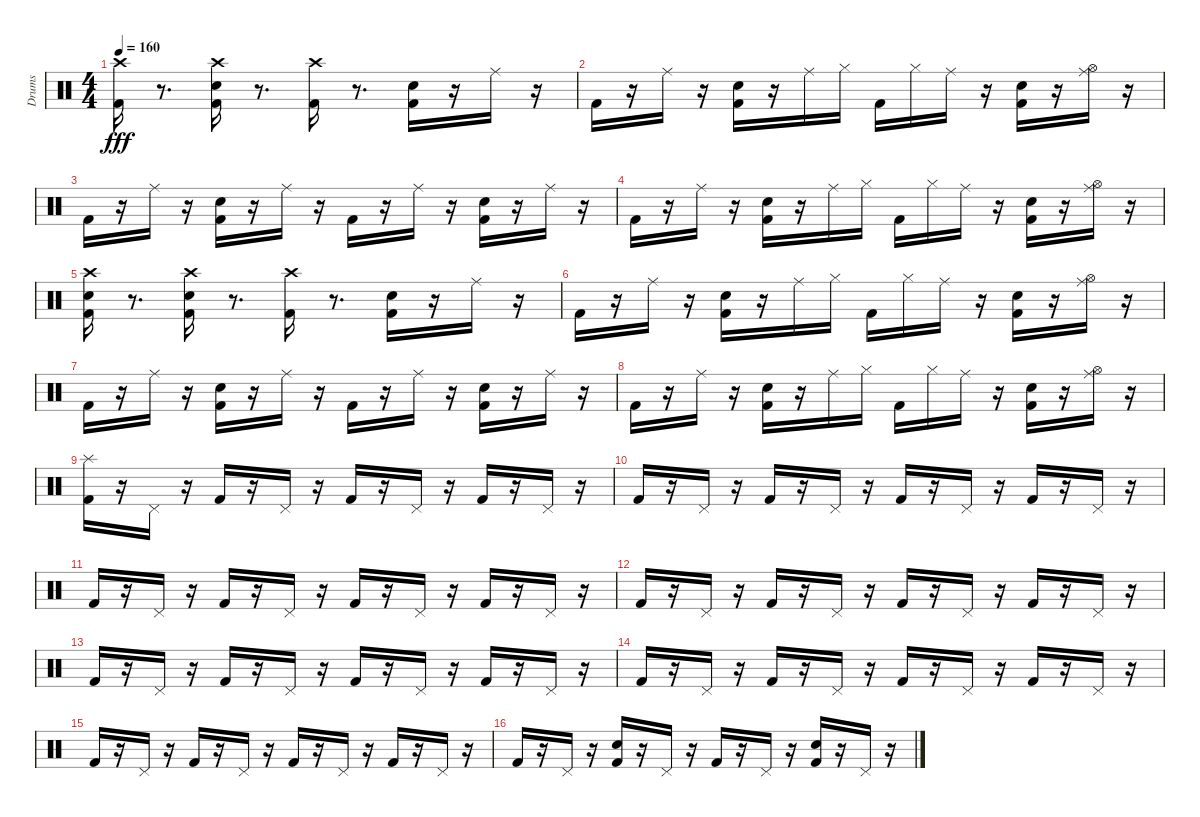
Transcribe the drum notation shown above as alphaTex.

\track ("Drums" "Drums") {instrument percussion}
\staff {score}
\articulation defaults
\ts (4 4)
\tempo 160
\clef neutral
\ks c
("Crash high (hit)" "Kick (hit) 2").16{dy fff} r.8{d} ("Crash high (hit)" "Electric Snare (hit)" "Kick (hit) 2").16 r.8{d} ("Crash high (hit)" "Kick (hit) 2").16 r.8{d} ("Electric Snare (hit)" "Kick (hit) 2").16 r.16 "Ride (middle)".16 r.16 |
"Kick (hit) 2".16 r.16 "Ride (middle)".16 r.16 ("Electric Snare (hit)" "Kick (hit) 2").16 r.16 "Ride (middle)".16 "Hi-Hat (closed)".16 "Kick (hit) 2".16 "Hi-Hat (closed)".16 "Ride (middle)".16 r.16 ("Electric Snare (hit)" "Kick (hit) 2").16 r.16 ("Ride (middle)" "Hi-Hat (open)").16 r.16 |
"Kick (hit) 2".16 r.16 "Ride (middle)".16 r.16 ("Electric Snare (hit)" "Kick (hit) 2").16 r.16 "Ride (middle)".16 r.16 "Kick (hit) 2".16 r.16 "Ride (middle)".16 r.16 ("Electric Snare (hit)" "Kick (hit) 2").16 r.16 "Ride (middle)".16 r.16 |
"Kick (hit) 2".16 r.16 "Ride (middle)".16 r.16 ("Electric Snare (hit)" "Kick (hit) 2").16 r.16 "Ride (middle)".16 "Hi-Hat (closed)".16 "Kick (hit) 2".16 "Hi-Hat (closed)".16 "Ride (middle)".16 r.16 ("Electric Snare (hit)" "Kick (hit) 2").16 r.16 ("Hi-Hat (open)" "Ride (middle)").16 r.16 |
("Electric Snare (hit)" "Kick (hit) 2" "Crash high (hit)").16 r.8{d} ("Crash high (hit)" "Electric Snare (hit)" "Kick (hit) 2").16 r.8{d} ("Crash high (hit)" "Kick (hit) 2").16 r.8{d} ("Kick (hit) 2" "Electric Snare (hit)").16 r.16 "Ride (middle)".16 r.16 |
"Kick (hit) 2".16 r.16 "Ride (middle)".16 r.16 ("Electric Snare (hit)" "Kick (hit) 2").16 r.16 "Ride (middle)".16 "Hi-Hat (closed)".16 "Kick (hit) 2".16 "Hi-Hat (closed)".16 "Ride (middle)".16 r.16 ("Electric Snare (hit)" "Kick (hit) 2").16 r.16 ("Hi-Hat (open)" "Ride (middle)").16 r.16 |
"Kick (hit) 2".16 r.16 "Ride (middle)".16 r.16 ("Kick (hit) 2" "Electric Snare (hit)").16 r.16 "Ride (middle)".16 r.16 "Kick (hit) 2".16 r.16 "Ride (middle)".16 r.16 ("Electric Snare (hit)" "Kick (hit) 2").16 r.16 "Ride (middle)".16 r.16 |
"Kick (hit) 2".16 r.16 "Ride (middle)".16 r.16 ("Kick (hit) 2" "Electric Snare (hit)").16 r.16 "Ride (middle)".16 "Hi-Hat (closed)".16 "Kick (hit) 2".16 "Hi-Hat (closed)".16 "Ride (middle)".16 r.16 ("Kick (hit) 2" "Electric Snare (hit)").16 r.16 ("Hi-Hat (open)" "Ride (middle)").16 r.16 |
("Splash (hit)" "Kick (hit) 2").16 r.16 "Pedal Hi-Hat (hit)".16 r.16 "Kick (hit) 2".16 r.16 "Pedal Hi-Hat (hit)".16 r.16 "Kick (hit) 2".16 r.16 "Pedal Hi-Hat (hit)".16 r.16 "Kick (hit) 2".16 r.16 "Pedal Hi-Hat (hit)".16 r.16 |
"Kick (hit) 2".16 r.16 "Pedal Hi-Hat (hit)".16 r.16 "Kick (hit) 2".16 r.16 "Pedal Hi-Hat (hit)".16 r.16 "Kick (hit) 2".16 r.16 "Pedal Hi-Hat (hit)".16 r.16 "Kick (hit) 2".16 r.16 "Pedal Hi-Hat (hit)".16 r.16 |
"Kick (hit) 2".16 r.16 "Pedal Hi-Hat (hit)".16 r.16 "Kick (hit) 2".16 r.16 "Pedal Hi-Hat (hit)".16 r.16 "Kick (hit) 2".16 r.16 "Pedal Hi-Hat (hit)".16 r.16 "Kick (hit) 2".16 r.16 "Pedal Hi-Hat (hit)".16 r.16 |
"Kick (hit) 2".16 r.16 "Pedal Hi-Hat (hit)".16 r.16 "Kick (hit) 2".16 r.16 "Pedal Hi-Hat (hit)".16 r.16 "Kick (hit) 2".16 r.16 "Pedal Hi-Hat (hit)".16 r.16 "Kick (hit) 2".16 r.16 "Pedal Hi-Hat (hit)".16 r.16 |
"Kick (hit) 2".16 r.16 "Pedal Hi-Hat (hit)".16 r.16 "Kick (hit) 2".16 r.16 "Pedal Hi-Hat (hit)".16 r.16 "Kick (hit) 2".16 r.16 "Pedal Hi-Hat (hit)".16 r.16 "Kick (hit) 2".16 r.16 "Pedal Hi-Hat (hit)".16 r.16 |
"Kick (hit) 2".16 r.16 "Pedal Hi-Hat (hit)".16 r.16 "Kick (hit) 2".16 r.16 "Pedal Hi-Hat (hit)".16 r.16 "Kick (hit) 2".16 r.16 "Pedal Hi-Hat (hit)".16 r.16 "Kick (hit) 2".16 r.16 "Pedal Hi-Hat (hit)".16 r.16 |
"Kick (hit) 2".16 r.16 "Pedal Hi-Hat (hit)".16 r.16 "Kick (hit) 2".16 r.16 "Pedal Hi-Hat (hit)".16 r.16 "Kick (hit) 2".16 r.16 "Pedal Hi-Hat (hit)".16 r.16 "Kick (hit) 2".16 r.16 "Pedal Hi-Hat (hit)".16 r.16 |
"Kick (hit) 2".16 r.16 "Pedal Hi-Hat (hit)".16 r.16 ("Electric Snare (hit)" "Kick (hit) 2").16 r.16 "Pedal Hi-Hat (hit)".16 r.16 "Kick (hit) 2".16 r.16 "Pedal Hi-Hat (hit)".16 r.16 ("Electric Snare (hit)" "Kick (hit) 2").16 r.16 "Pedal Hi-Hat (hit)".16 r.16
